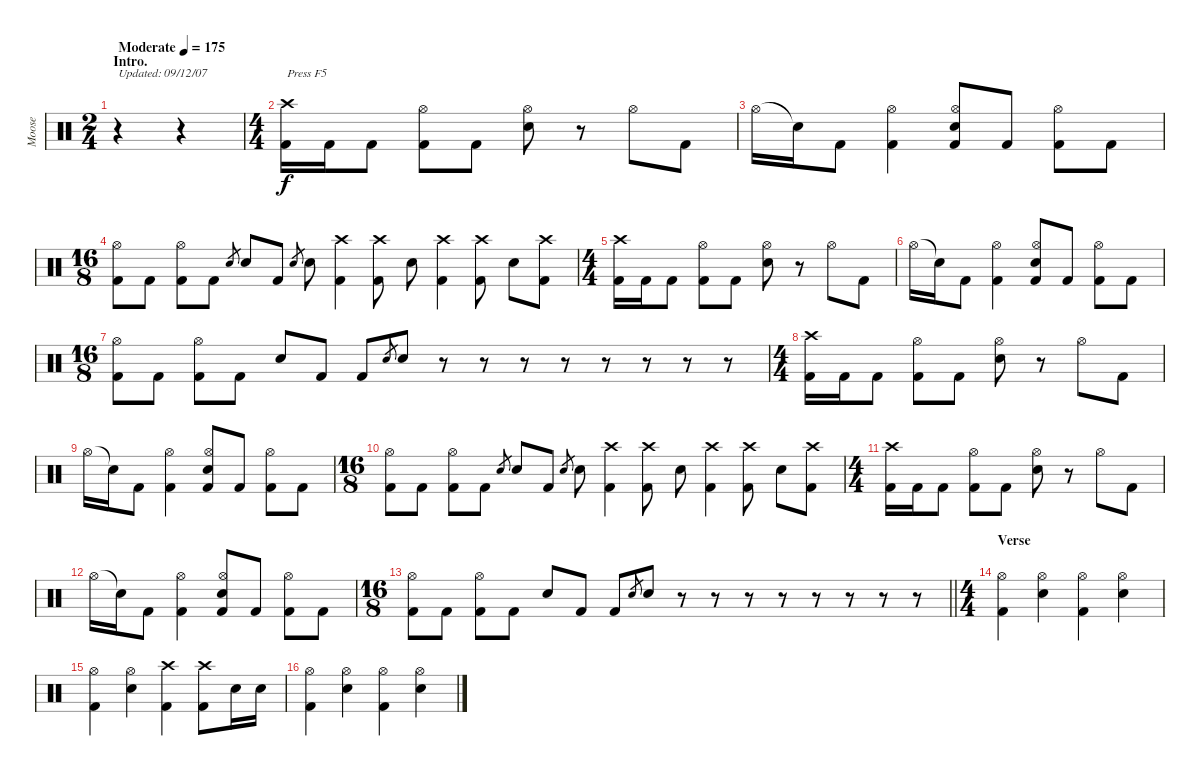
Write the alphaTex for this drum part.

\track ("Moose" "Moose") {instrument percussion}
\staff {score}
\articulation defaults
\ts (2 4)
\section ("" "Intro.")
\tempo (175 "Moderate")
\clef neutral
\ks c
r.4{txt "Updated: 09/12/07" dy f} r.4 |
\ts (4 4)
("Crash high (hit)" "Kick (hit) 2").16{txt "Press F5"} "Kick (hit) 2".16 "Kick (hit) 2".8 ("Hi-Hat (open)" "Kick (hit) 2").8 "Kick (hit) 2".8 ("Hi-Hat (open)" "Electric Snare (hit)").8 r.8 "Hi-Hat (open)".8 "Kick (hit) 2".8 |
"Hi-Hat (open)".16 "Snare (hit)"{t}.16 "Kick (hit) 2".8 ("Hi-Hat (open)" "Kick (hit) 2").4 ("Hi-Hat (open)" "Electric Snare (hit)" "Kick (hit) 2").8 "Kick (hit) 2".8 ("Hi-Hat (open)" "Kick (hit) 2").8 "Kick (hit) 2".8 |
\ts (16 8)
("Hi-Hat (open)" "Kick (hit) 2").8 "Kick (hit) 2".8 ("Hi-Hat (open)" "Kick (hit) 2").8 "Kick (hit) 2".8 "Electric Snare (hit)".8{gr} "Electric Snare (hit)".8 "Kick (hit) 2".8 "Electric Snare (hit)".8{gr} "Electric Snare (hit)".8 ("Crash high (hit)" "Kick (hit) 2").4 ("Crash high (hit)" "Kick (hit) 2").8 "Electric Snare (hit)".8 ("Crash high (hit)" "Kick (hit) 2").4 ("Crash high (hit)" "Kick (hit) 2").8 "Electric Snare (hit)".8 ("Crash high (hit)" "Kick (hit) 2").8 |
\ts (4 4)
("Crash high (hit)" "Kick (hit) 2").16 "Kick (hit) 2".16 "Kick (hit) 2".8 ("Hi-Hat (open)" "Kick (hit) 2").8 "Kick (hit) 2".8 ("Hi-Hat (open)" "Electric Snare (hit)").8 r.8 "Hi-Hat (open)".8 "Kick (hit) 2".8 |
"Hi-Hat (open)".16 "Snare (hit)"{t}.16 "Kick (hit) 2".8 ("Hi-Hat (open)" "Kick (hit) 2").4 ("Hi-Hat (open)" "Electric Snare (hit)" "Kick (hit) 2").8 "Kick (hit) 2".8 ("Hi-Hat (open)" "Kick (hit) 2").8 "Kick (hit) 2".8 |
\ts (16 8)
("Hi-Hat (open)" "Kick (hit) 2").8 "Kick (hit) 2".8 ("Hi-Hat (open)" "Kick (hit) 2").8 "Kick (hit) 2".8 "Electric Snare (hit)".8 "Kick (hit) 2".8 "Kick (hit) 2".8 "Electric Snare (hit)".8{gr} "Electric Snare (hit)".8 r.8 r.8 r.8 r.8 r.8 r.8 r.8 r.8 |
\ts (4 4)
("Crash high (hit)" "Kick (hit) 2").16 "Kick (hit) 2".16 "Kick (hit) 2".8 ("Hi-Hat (open)" "Kick (hit) 2").8 "Kick (hit) 2".8 ("Hi-Hat (open)" "Electric Snare (hit)").8 r.8 "Hi-Hat (open)".8 "Kick (hit) 2".8 |
"Hi-Hat (open)".16 "Snare (hit)"{t}.16 "Kick (hit) 2".8 ("Hi-Hat (open)" "Kick (hit) 2").4 ("Hi-Hat (open)" "Electric Snare (hit)" "Kick (hit) 2").8 "Kick (hit) 2".8 ("Hi-Hat (open)" "Kick (hit) 2").8 "Kick (hit) 2".8 |
\ts (16 8)
("Hi-Hat (open)" "Kick (hit) 2").8 "Kick (hit) 2".8 ("Hi-Hat (open)" "Kick (hit) 2").8 "Kick (hit) 2".8 "Electric Snare (hit)".8{gr} "Electric Snare (hit)".8 "Kick (hit) 2".8 "Electric Snare (hit)".8{gr} "Electric Snare (hit)".8 ("Crash high (hit)" "Kick (hit) 2").4 ("Crash high (hit)" "Kick (hit) 2").8 "Electric Snare (hit)".8 ("Crash high (hit)" "Kick (hit) 2").4 ("Crash high (hit)" "Kick (hit) 2").8 "Electric Snare (hit)".8 ("Crash high (hit)" "Kick (hit) 2").8 |
\ts (4 4)
("Crash high (hit)" "Kick (hit) 2").16 "Kick (hit) 2".16 "Kick (hit) 2".8 ("Hi-Hat (open)" "Kick (hit) 2").8 "Kick (hit) 2".8 ("Hi-Hat (open)" "Electric Snare (hit)").8 r.8 "Hi-Hat (open)".8 "Kick (hit) 2".8 |
"Hi-Hat (open)".16 "Snare (hit)"{t}.16 "Kick (hit) 2".8 ("Hi-Hat (open)" "Kick (hit) 2").4 ("Hi-Hat (open)" "Electric Snare (hit)" "Kick (hit) 2").8 "Kick (hit) 2".8 ("Hi-Hat (open)" "Kick (hit) 2").8 "Kick (hit) 2".8 |
\ts (16 8)
\barLineRight lightlight
("Hi-Hat (open)" "Kick (hit) 2").8 "Kick (hit) 2".8 ("Hi-Hat (open)" "Kick (hit) 2").8 "Kick (hit) 2".8 "Electric Snare (hit)".8 "Kick (hit) 2".8 "Kick (hit) 2".8 "Electric Snare (hit)".8{gr} "Electric Snare (hit)".8 r.8 r.8 r.8 r.8 r.8 r.8 r.8 r.8 |
\ts (4 4)
\section ("" "Verse")
("Hi-Hat (open)" "Kick (hit) 2").4 ("Hi-Hat (open)" "Electric Snare (hit)").4 ("Hi-Hat (open)" "Kick (hit) 2").4 ("Hi-Hat (open)" "Electric Snare (hit)").4 |
("Hi-Hat (open)" "Kick (hit) 2").4 ("Hi-Hat (open)" "Electric Snare (hit)").4 ("Crash high (hit)" "Kick (hit) 2").4 ("Crash high (hit)" "Kick (hit) 2").8 "Electric Snare (hit)".16 "Electric Snare (hit)".16 |
("Hi-Hat (open)" "Kick (hit) 2").4 ("Hi-Hat (open)" "Electric Snare (hit)").4 ("Hi-Hat (open)" "Kick (hit) 2").4 ("Hi-Hat (open)" "Electric Snare (hit)").4
